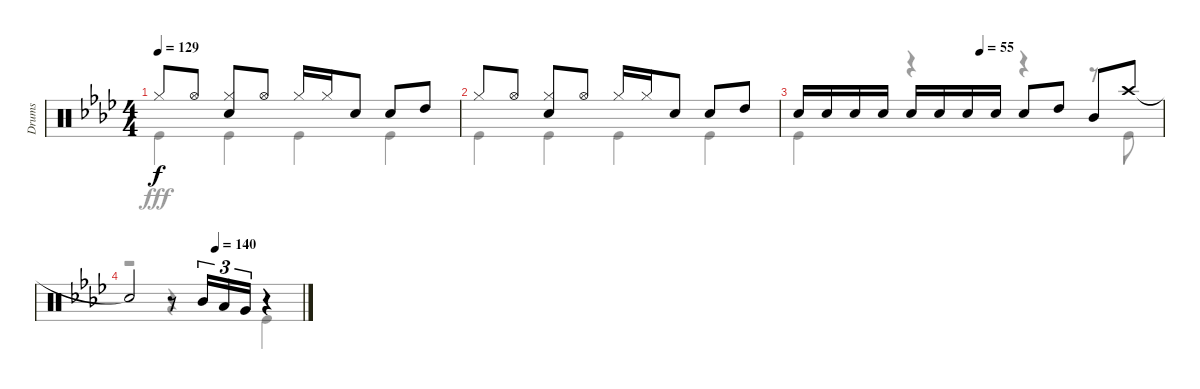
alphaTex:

\track ("Drums" "Drums") {instrument percussion}
\staff {score}
\articulation defaults
\voice
\ts (4 4)
\tempo 129
\clef neutral
\ks ab "Hi-Hat (closed)".8{dy f} "Hi-Hat (open)".8
("Hi-Hat (closed)" "Snare (hit) 2").8 "Hi-Hat (open)".8 "Hi-Hat (closed)".16 "Hi-Hat (closed)".16 "Snare (hit) 2".8 "Snare (hit) 2".8 "High Tom (hit)".8 |
"Hi-Hat (closed)".8 "Hi-Hat (open)".8 ("Hi-Hat (closed)" "Snare (hit) 2").8 "Hi-Hat (open)".8 "Hi-Hat (closed)".16 "Hi-Hat (closed)".16 "Snare (hit) 2".8 "Snare (hit) 2".8 "High Tom (hit)".8 |
\tempo (55 0.5)
"Snare (hit) 2".16 "Snare (hit) 2".16 "Snare (hit) 2".16 "Snare (hit) 2".16 "Snare (hit) 2".16 "Snare (hit) 2".16 "Snare (hit) 2".16 "Snare (hit) 2".16 "Snare (hit) 2".8 "High Tom (hit)".8 "Mid Tom (hit)".8 "Crash high (hit)".8 |
\tempo (140 0.5)
"Snare (hit)"{t}.2 r.8 "Mid Tom (hit)".16{tu (3 2)} "Low Tom (hit)".16{tu (3 2)} "Very Low Tom (hit)".16{tu (3 2)} r.4
\voice
\clef neutral
\ottava regular
\simile none
\ks ab "Kick (hit)".4{dy fff} "Kick (hit)".4 "Kick (hit)".4 "Kick (hit)".4
|
"Kick (hit)".4 "Kick (hit)".4 "Kick (hit)".4 "Kick (hit)".4 |
"Kick (hit)".4 r.4 r.4 r.8 "Kick (hit)".8 |
r.2 r.4 "Kick (hit)".4
